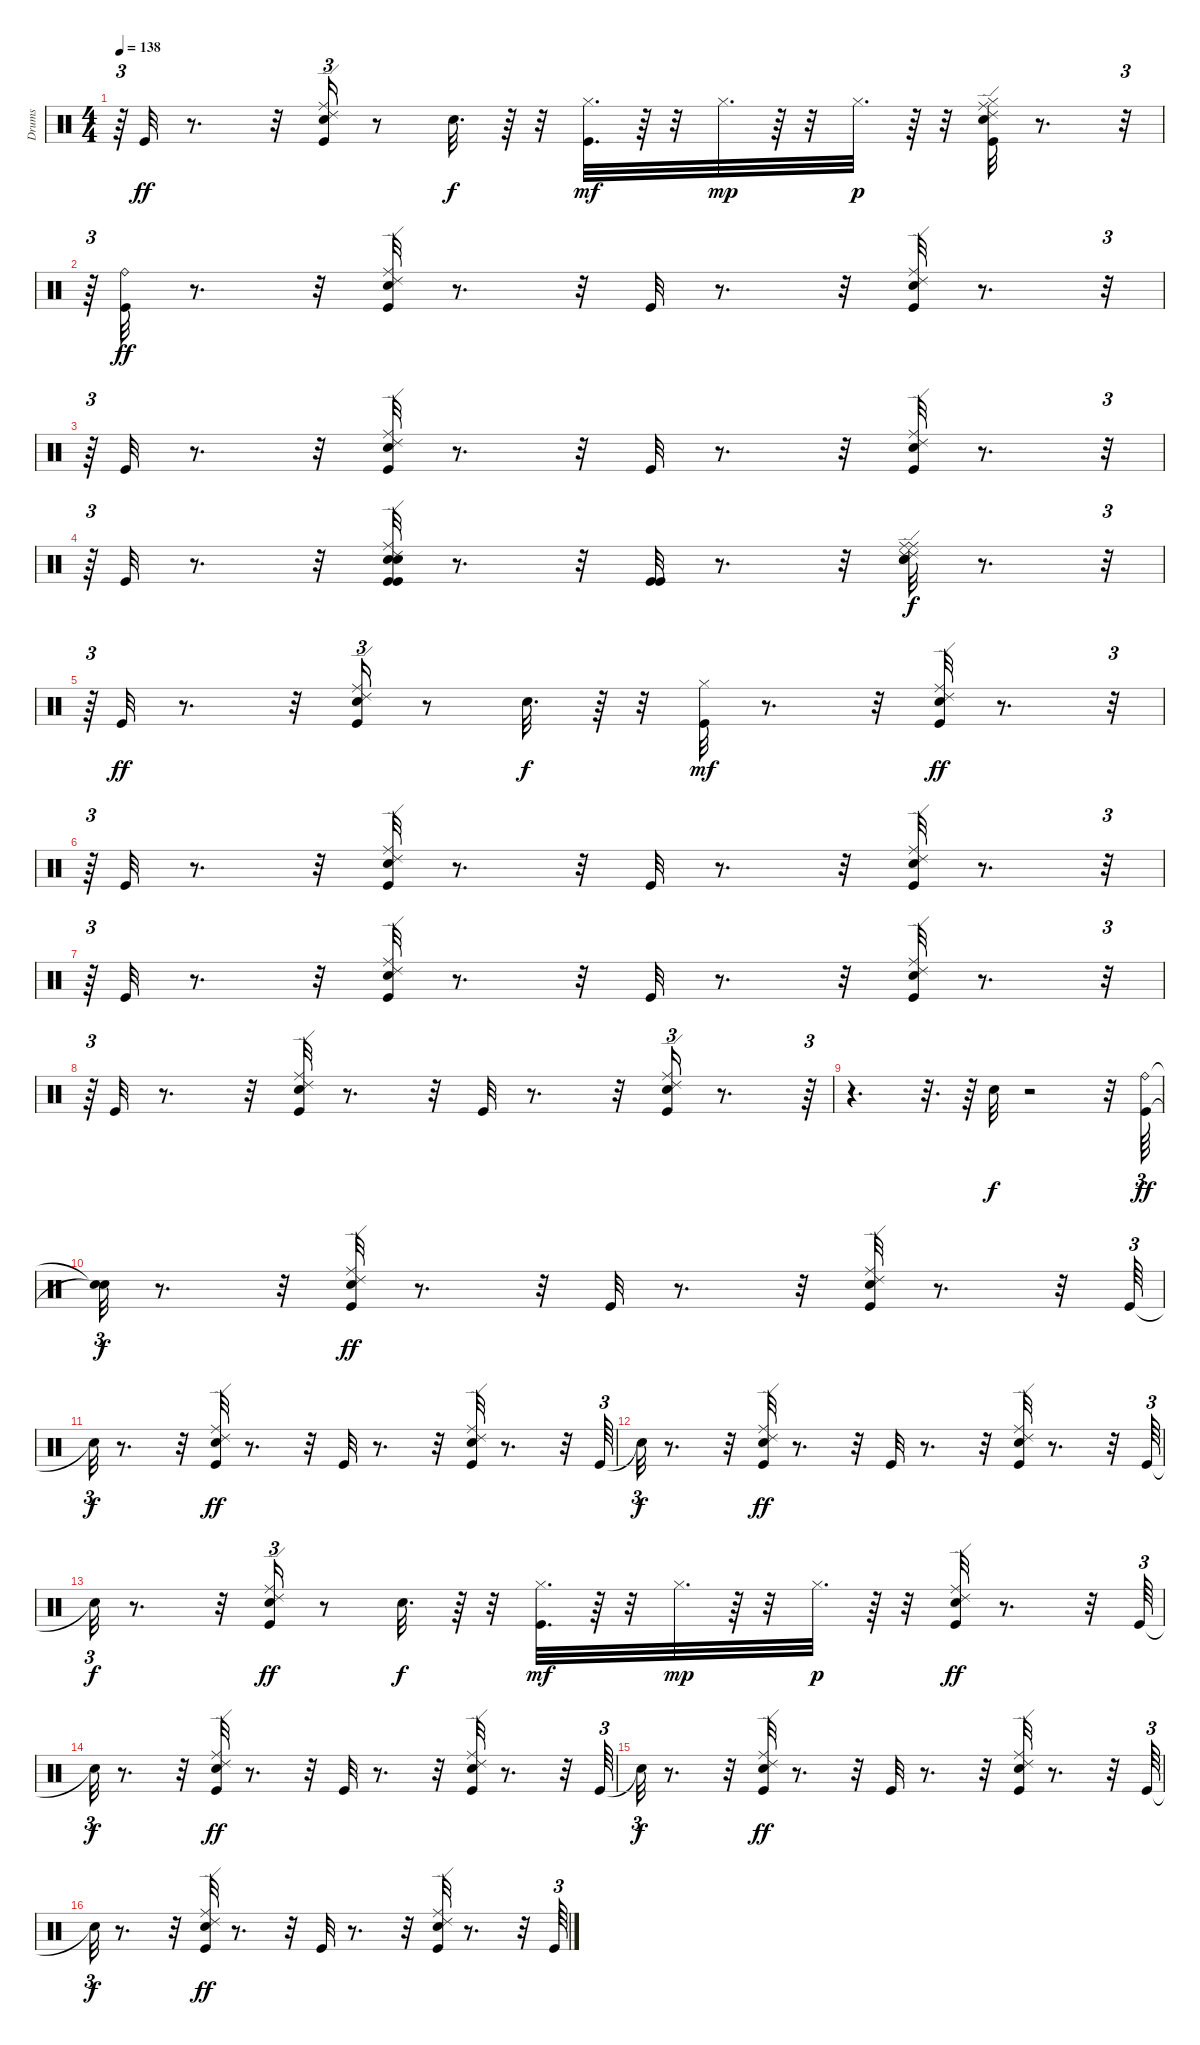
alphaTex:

\track ("Drums" "Drums") {instrument percussion}
\staff {score}
\articulation defaults
\ts (4 4)
\tempo 138
\clef neutral
\ks c
r.64{tu (3 2) dy ff} "Kick (hit)".32 r.8{d} r.32 ("Ride (middle)" "Ride (edge) 2" "Kick (hit)" "Hand Clap (hit)").16{tu (3 2)} r.8 "Hand Clap (hit)".32{d dy f} r.64 r.32 ("Kick (hit)" "Hi-Hat (closed)").32{d dy mf} r.64 r.32 "Hi-Hat (closed)".32{d dy mp} r.64 r.32 "Hi-Hat (closed)".32{d dy p} r.64 r.32 ("Ride (middle)" "Ride (edge) 2" "Hand Clap (hit)" "Kick (hit)" "Hi-Hat (closed)").32 r.8{d} r.32{tu (3 2)} |
r.64{tu (3 2)} ("Ride (bell)" "Kick (hit)").32{dy ff} r.8{d} r.32 ("Hand Clap (hit)" "Kick (hit)" "Ride (middle)" "Ride (edge) 2").32 r.8{d} r.32 "Kick (hit)".32 r.8{d} r.32 ("Ride (middle)" "Ride (edge) 2" "Hand Clap (hit)" "Kick (hit)").32 r.8{d} r.32{tu (3 2)} |
r.64{tu (3 2)} "Kick (hit)".32 r.8{d} r.32 ("Ride (middle)" "Ride (edge) 2" "Kick (hit)" "Hand Clap (hit)").32 r.8{d} r.32 "Kick (hit)".32 r.8{d} r.32 ("Ride (middle)" "Ride (edge) 2" "Kick (hit)" "Hand Clap (hit)").32 r.8{d} r.32{tu (3 2)} |
r.64{tu (3 2)} "Kick (hit)".32 r.8{d} r.32 ("Kick (hit)" "Kick (hit)" "Hand Clap (hit)" "Hand Clap (hit)" "Ride (middle)" "Ride (edge) 2").32 r.8{d} r.32 ("Kick (hit)" "Kick (hit)").32 r.8{d} r.32 ("Ride (middle)" "Ride (edge) 2" "Ride (middle)" "Ride (edge) 2" "Hand Clap (hit)" "Hand Clap (hit)").32{dy f} r.8{d} r.32{tu (3 2)} |
r.64{tu (3 2)} "Kick (hit)".32{dy ff} r.8{d} r.32 ("Ride (middle)" "Ride (edge) 2" "Kick (hit)" "Hand Clap (hit)").16{tu (3 2)} r.8 "Hand Clap (hit)".32{d dy f} r.64 r.32 ("Kick (hit)" "Hi-Hat (closed)").32{dy mf} r.8{d} r.32 ("Ride (middle)" "Ride (edge) 2" "Hand Clap (hit)" "Kick (hit)").32{dy ff} r.8{d} r.32{tu (3 2)} |
r.64{tu (3 2)} "Kick (hit)".32 r.8{d} r.32 ("Hand Clap (hit)" "Kick (hit)" "Ride (middle)" "Ride (edge) 2").32 r.8{d} r.32 "Kick (hit)".32 r.8{d} r.32 ("Ride (middle)" "Ride (edge) 2" "Hand Clap (hit)" "Kick (hit)").32 r.8{d} r.32{tu (3 2)} |
r.64{tu (3 2)} "Kick (hit)".32 r.8{d} r.32 ("Ride (middle)" "Ride (edge) 2" "Kick (hit)" "Hand Clap (hit)").32 r.8{d} r.32 "Kick (hit)".32 r.8{d} r.32 ("Ride (middle)" "Ride (edge) 2" "Kick (hit)" "Hand Clap (hit)").32 r.8{d} r.32{tu (3 2)} |
r.64{tu (3 2)} "Kick (hit)".32 r.8{d} r.32 ("Kick (hit)" "Hand Clap (hit)" "Ride (middle)" "Ride (edge) 2").32 r.8{d} r.32 "Kick (hit)".32 r.8{d} r.32 ("Ride (middle)" "Ride (edge) 2" "Hand Clap (hit)" "Kick (hit)").16{tu (3 2)} r.8{d} r.64{tu (3 2)} |
r.4{d} r.32{d} r.64 "Hand Clap (hit)".32{dy f} r.2 r.32 ("Ride (bell)" "Kick (hit)").64{tu (3 2) dy ff} |
("Snare (hit)"{t} "Snare (hit)"{t}).32{tu (3 2) dy f} r.8{d} r.32 ("Hand Clap (hit)" "Kick (hit)" "Ride (middle)" "Ride (edge) 2").32{dy ff} r.8{d} r.32 "Kick (hit)".32 r.8{d} r.32 ("Ride (middle)" "Ride (edge) 2" "Hand Clap (hit)" "Kick (hit)").32 r.8{d} r.32 "Kick (hit)".64{tu (3 2)} |
"Snare (hit)"{t}.32{tu (3 2) dy f} r.8{d} r.32 ("Ride (middle)" "Ride (edge) 2" "Kick (hit)" "Hand Clap (hit)").32{dy ff} r.8{d} r.32 "Kick (hit)".32 r.8{d} r.32 ("Ride (middle)" "Ride (edge) 2" "Kick (hit)" "Hand Clap (hit)").32 r.8{d} r.32 "Kick (hit)".64{tu (3 2)} |
"Snare (hit)"{t}.32{tu (3 2) dy f} r.8{d} r.32 ("Kick (hit)" "Hand Clap (hit)" "Ride (middle)" "Ride (edge) 2").32{dy ff} r.8{d} r.32 "Kick (hit)".32 r.8{d} r.32 ("Ride (middle)" "Ride (edge) 2" "Hand Clap (hit)" "Kick (hit)").32 r.8{d} r.32 "Kick (hit)".64{tu (3 2)} |
"Snare (hit)"{t}.32{tu (3 2) dy f} r.8{d} r.32 ("Ride (middle)" "Ride (edge) 2" "Kick (hit)" "Hand Clap (hit)").16{tu (3 2) dy ff} r.8 "Hand Clap (hit)".32{d dy f} r.64 r.32 ("Kick (hit)" "Hi-Hat (closed)").32{d dy mf} r.64 r.32 "Hi-Hat (closed)".32{d dy mp} r.64 r.32 "Hi-Hat (closed)".32{d dy p} r.64 r.32 ("Ride (middle)" "Ride (edge) 2" "Hand Clap (hit)" "Kick (hit)").32{dy ff} r.8{d} r.32 "Kick (hit)".64{tu (3 2)} |
"Snare (hit)"{t}.32{tu (3 2) dy f} r.8{d} r.32 ("Hand Clap (hit)" "Kick (hit)" "Ride (middle)" "Ride (edge) 2").32{dy ff} r.8{d} r.32 "Kick (hit)".32 r.8{d} r.32 ("Ride (middle)" "Ride (edge) 2" "Hand Clap (hit)" "Kick (hit)").32 r.8{d} r.32 "Kick (hit)".64{tu (3 2)} |
"Snare (hit)"{t}.32{tu (3 2) dy f} r.8{d} r.32 ("Ride (middle)" "Ride (edge) 2" "Kick (hit)" "Hand Clap (hit)").32{dy ff} r.8{d} r.32 "Kick (hit)".32 r.8{d} r.32 ("Ride (middle)" "Ride (edge) 2" "Kick (hit)" "Hand Clap (hit)").32 r.8{d} r.32 "Kick (hit)".64{tu (3 2)} |
"Snare (hit)"{t}.32{tu (3 2) dy f} r.8{d} r.32 ("Kick (hit)" "Hand Clap (hit)" "Ride (middle)" "Ride (edge) 2").32{dy ff} r.8{d} r.32 "Kick (hit)".32 r.8{d} r.32 ("Ride (middle)" "Ride (edge) 2" "Hand Clap (hit)" "Kick (hit)").32 r.8{d} r.32 "Kick (hit)".64{tu (3 2)}
